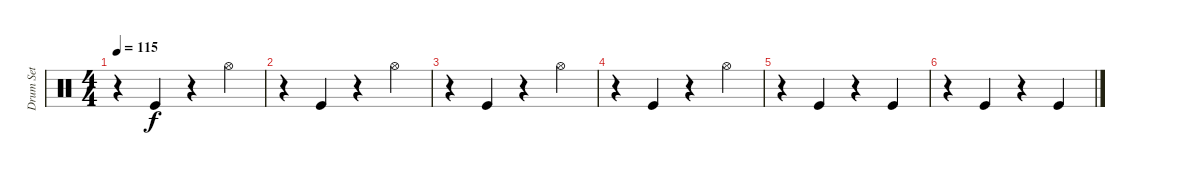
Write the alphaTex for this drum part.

\track ("Drum Set" "Drum Set") {instrument percussion}
\staff {score}
\articulation defaults
\ts (4 4)
\tempo 115
\clef neutral
\ks c
r.4{dy f} "Kick (hit)".4 r.4 "Hi-Hat (open)".4 |
r.4 "Kick (hit)".4 r.4 "Hi-Hat (open)".4 |
r.4 "Kick (hit)".4 r.4 "Hi-Hat (open)".4 |
r.4 "Kick (hit)".4 r.4 "Hi-Hat (open)".4 |
r.4 "Kick (hit)".4 r.4 "Kick (hit)".4 |
r.4 "Kick (hit)".4 r.4 "Kick (hit)".4
